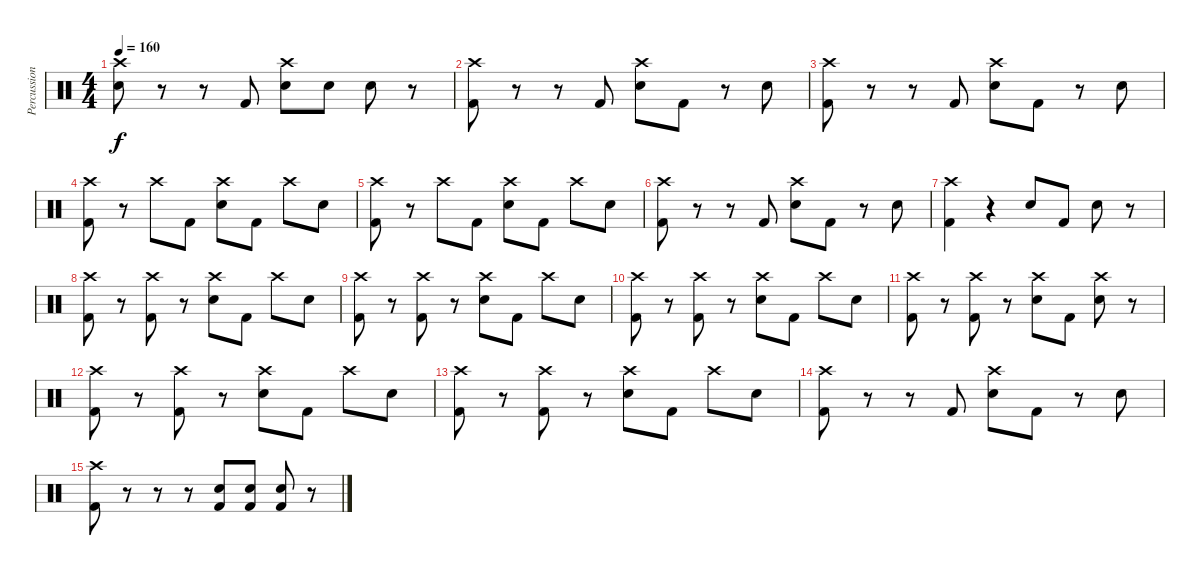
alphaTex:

\track ("Percussion" "Percussion") {instrument percussion}
\staff {score}
\articulation defaults
\ts (4 4)
\tempo 160
\clef neutral
\ks c
("Crash high (hit)" "Snare (hit) 2").8{dy f} r.8 r.8 "Kick (hit) 2".8 ("Crash high (hit)" "Snare (hit) 2").8 "Snare (hit) 2".8 "Snare (hit) 2".8 r.8 |
("Crash high (hit)" "Kick (hit) 2").8 r.8 r.8 "Kick (hit) 2".8 ("Crash high (hit)" "Snare (hit) 2").8 "Kick (hit) 2".8 r.8 "Snare (hit) 2".8 |
("Crash high (hit)" "Kick (hit) 2").8 r.8 r.8 "Kick (hit) 2".8 ("Crash high (hit)" "Snare (hit) 2").8 "Kick (hit) 2".8 r.8 "Snare (hit) 2".8 |
("Crash high (hit)" "Kick (hit) 2").8 r.8 "Crash high (hit)".8 "Kick (hit) 2".8 ("Crash high (hit)" "Snare (hit) 2").8 "Kick (hit) 2".8 "Crash high (hit)".8 "Snare (hit) 2".8 |
("Crash high (hit)" "Kick (hit) 2").8 r.8 "Crash high (hit)".8 "Kick (hit) 2".8 ("Crash high (hit)" "Snare (hit) 2").8 "Kick (hit) 2".8 "Crash high (hit)".8 "Snare (hit) 2".8 |
("Crash high (hit)" "Kick (hit) 2").8 r.8 r.8 "Kick (hit) 2".8 ("Crash high (hit)" "Snare (hit) 2").8 "Kick (hit) 2".8 r.8 "Snare (hit) 2".8 |
("Crash high (hit)" "Kick (hit) 2").4 r.4 "Snare (hit) 2".8 "Kick (hit) 2".8 "Snare (hit) 2".8 r.8 |
("Crash high (hit)" "Kick (hit) 2").8 r.8 ("Crash high (hit)" "Kick (hit) 2").8 r.8 ("Crash high (hit)" "Snare (hit) 2").8 "Kick (hit) 2".8 "Crash high (hit)".8 "Snare (hit) 2".8 |
("Crash high (hit)" "Kick (hit) 2").8 r.8 ("Crash high (hit)" "Kick (hit) 2").8 r.8 ("Crash high (hit)" "Snare (hit) 2").8 "Kick (hit) 2".8 "Crash high (hit)".8 "Snare (hit) 2".8 |
("Crash high (hit)" "Kick (hit) 2").8 r.8 ("Crash high (hit)" "Kick (hit) 2").8 r.8 ("Crash high (hit)" "Snare (hit) 2").8 "Kick (hit) 2".8 "Crash high (hit)".8 "Snare (hit) 2".8 |
("Crash high (hit)" "Kick (hit) 2").8 r.8 ("Crash high (hit)" "Kick (hit) 2").8 r.8 ("Crash high (hit)" "Snare (hit) 2").8 "Kick (hit) 2".8 ("Crash high (hit)" "Snare (hit) 2").8 r.8 |
("Crash high (hit)" "Kick (hit) 2").8 r.8 ("Crash high (hit)" "Kick (hit) 2").8 r.8 ("Crash high (hit)" "Snare (hit) 2").8 "Kick (hit) 2".8 "Crash high (hit)".8 "Snare (hit) 2".8 |
("Crash high (hit)" "Kick (hit) 2").8 r.8 ("Crash high (hit)" "Kick (hit) 2").8 r.8 ("Crash high (hit)" "Snare (hit) 2").8 "Kick (hit) 2".8 "Crash high (hit)".8 "Snare (hit) 2".8 |
("Crash high (hit)" "Kick (hit) 2").8 r.8 r.8 "Kick (hit) 2".8 ("Crash high (hit)" "Snare (hit) 2").8 "Kick (hit) 2".8 r.8 "Snare (hit) 2".8 |
("Crash high (hit)" "Kick (hit) 2").8 r.8 r.8 r.8 ("Snare (hit) 2" "Kick (hit) 2").8 ("Snare (hit) 2" "Kick (hit) 2").8 ("Snare (hit) 2" "Kick (hit) 2").8 r.8
